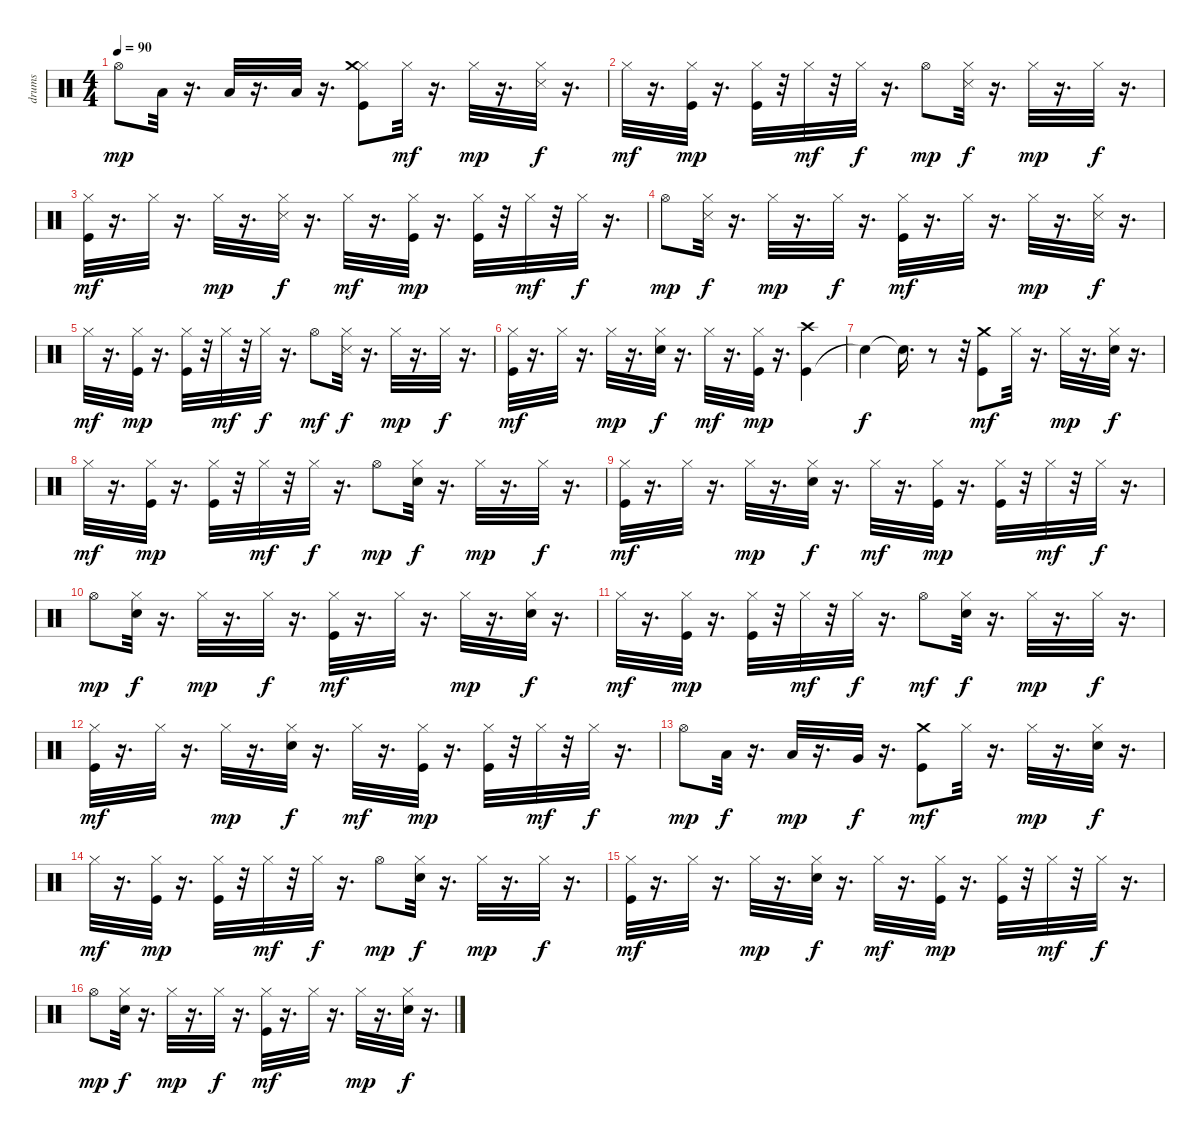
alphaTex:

\track ("drums" "drums") {instrument percussion}
\staff {score}
\articulation defaults
\ts (4 4)
\tempo 90
\clef neutral
\ks c "Hi-Hat (open)".8{dy mp} "Low Tom (hit)".32
r.16{d} "Low Tom (hit)".32 r.16{d} "Low Floor Tom (hit)".32 r.16{d} ("Kick (hit)" "Hi-Hat (closed)" "Crash medium (hit)").8 "Hi-Hat (closed)".32{dy mf} r.16{d} "Hi-Hat (closed)".32{dy mp} r.16{d} ("Snare (side stick) 3" "Hi-Hat (closed)").32{dy f} r.16{d} |
"Hi-Hat (closed)".32{dy mf} r.16{d} ("Kick (hit)" "Hi-Hat (closed)").32{dy mp} r.16{d} ("Kick (hit)" "Hi-Hat (closed)").32 r.32 "Hi-Hat (closed)".32{dy mf} r.32 "Hi-Hat (closed)".32{dy f} r.16{d} "Hi-Hat (open)".8{dy mp} ("Snare (side stick) 3" "Hi-Hat (closed)").32{dy f} r.16{d} "Hi-Hat (closed)".32{dy mp} r.16{d} "Hi-Hat (closed)".32{dy f} r.16{d} |
("Kick (hit)" "Hi-Hat (closed)").32{dy mf} r.16{d} "Hi-Hat (closed)".32 r.16{d} "Hi-Hat (closed)".32{dy mp} r.16{d} ("Snare (side stick) 3" "Hi-Hat (closed)").32{dy f} r.16{d} "Hi-Hat (closed)".32{dy mf} r.16{d} ("Kick (hit)" "Hi-Hat (closed)").32{dy mp} r.16{d} ("Kick (hit)" "Hi-Hat (closed)").32 r.32 "Hi-Hat (closed)".32{dy mf} r.32 "Hi-Hat (closed)".32{dy f} r.16{d} |
"Hi-Hat (open)".8{dy mp} ("Snare (side stick) 3" "Hi-Hat (closed)").32{dy f} r.16{d} "Hi-Hat (closed)".32{dy mp} r.16{d} "Hi-Hat (closed)".32{dy f} r.16{d} ("Kick (hit)" "Hi-Hat (closed)").32{dy mf} r.16{d} "Hi-Hat (closed)".32 r.16{d} "Hi-Hat (closed)".32{dy mp} r.16{d} ("Snare (side stick) 3" "Hi-Hat (closed)").32{dy f} r.16{d} |
"Hi-Hat (closed)".32{dy mf} r.16{d} ("Kick (hit)" "Hi-Hat (closed)").32{dy mp} r.16{d} ("Kick (hit)" "Hi-Hat (closed)").32 r.32 "Hi-Hat (closed)".32{dy mf} r.32 "Hi-Hat (closed)".32{dy f} r.16{d} "Hi-Hat (open)".8{dy mf} ("Snare (side stick) 3" "Hi-Hat (closed)").32{dy f} r.16{d} "Hi-Hat (closed)".32{dy mp} r.16{d} "Hi-Hat (closed)".32{dy f} r.16{d} |
("Kick (hit)" "Hi-Hat (closed)").32{dy mf} r.16{d} "Hi-Hat (closed)".32 r.16{d} "Hi-Hat (closed)".32{dy mp} r.16{d} ("Snare (hit) 2" "Hi-Hat (closed)").32{dy f} r.16{d} "Hi-Hat (closed)".32{dy mf} r.16{d} ("Kick (hit)" "Hi-Hat (closed)").32{dy mp} r.16{d} ("Kick (hit)" "Crash high (hit)").4 |
"Snare (hit)"{t}.4{dy f} "Snare (hit)"{t}.16{d} r.8 r.32 ("Kick (hit)" "Crash medium (hit)").8{dy mf} "Hi-Hat (closed)".32 r.16{d} "Hi-Hat (closed)".32{dy mp} r.16{d} ("Snare (hit) 2" "Hi-Hat (closed)").32{dy f} r.16{d} |
"Hi-Hat (closed)".32{dy mf} r.16{d} ("Kick (hit)" "Hi-Hat (closed)").32{dy mp} r.16{d} ("Kick (hit)" "Hi-Hat (closed)").32 r.32 "Hi-Hat (closed)".32{dy mf} r.32 "Hi-Hat (closed)".32{dy f} r.16{d} "Hi-Hat (open)".8{dy mp} ("Snare (hit) 2" "Hi-Hat (closed)").32{dy f} r.16{d} "Hi-Hat (closed)".32{dy mp} r.16{d} "Hi-Hat (closed)".32{dy f} r.16{d} |
("Kick (hit)" "Hi-Hat (closed)").32{dy mf} r.16{d} "Hi-Hat (closed)".32 r.16{d} "Hi-Hat (closed)".32{dy mp} r.16{d} ("Snare (hit) 2" "Hi-Hat (closed)").32{dy f} r.16{d} "Hi-Hat (closed)".32{dy mf} r.16{d} ("Kick (hit)" "Hi-Hat (closed)").32{dy mp} r.16{d} ("Kick (hit)" "Hi-Hat (closed)").32 r.32 "Hi-Hat (closed)".32{dy mf} r.32 "Hi-Hat (closed)".32{dy f} r.16{d} |
"Hi-Hat (open)".8{dy mp} ("Snare (hit) 2" "Hi-Hat (closed)").32{dy f} r.16{d} "Hi-Hat (closed)".32{dy mp} r.16{d} "Hi-Hat (closed)".32{dy f} r.16{d} ("Kick (hit)" "Hi-Hat (closed)").32{dy mf} r.16{d} "Hi-Hat (closed)".32 r.16{d} "Hi-Hat (closed)".32{dy mp} r.16{d} ("Snare (hit) 2" "Hi-Hat (closed)").32{dy f} r.16{d} |
"Hi-Hat (closed)".32{dy mf} r.16{d} ("Kick (hit)" "Hi-Hat (closed)").32{dy mp} r.16{d} ("Kick (hit)" "Hi-Hat (closed)").32 r.32 "Hi-Hat (closed)".32{dy mf} r.32 "Hi-Hat (closed)".32{dy f} r.16{d} "Hi-Hat (open)".8{dy mf} ("Snare (hit) 2" "Hi-Hat (closed)").32{dy f} r.16{d} "Hi-Hat (closed)".32{dy mp} r.16{d} "Hi-Hat (closed)".32{dy f} r.16{d} |
("Kick (hit)" "Hi-Hat (closed)").32{dy mf} r.16{d} "Hi-Hat (closed)".32 r.16{d} "Hi-Hat (closed)".32{dy mp} r.16{d} ("Snare (hit) 2" "Hi-Hat (closed)").32{dy f} r.16{d} "Hi-Hat (closed)".32{dy mf} r.16{d} ("Kick (hit)" "Hi-Hat (closed)").32{dy mp} r.16{d} ("Kick (hit)" "Hi-Hat (closed)").32 r.32 "Hi-Hat (closed)".32{dy mf} r.32 "Hi-Hat (closed)".32{dy f} r.16{d} |
"Hi-Hat (open)".8{dy mp} "Low Tom (hit)".32{dy f} r.16{d} "Low Tom (hit)".32{dy mp} r.16{d} "Very Low Tom (hit)".32{dy f} r.16{d} ("Kick (hit)" "Crash medium (hit)").8{dy mf} "Hi-Hat (closed)".32 r.16{d} "Hi-Hat (closed)".32{dy mp} r.16{d} ("Snare (hit) 2" "Hi-Hat (closed)").32{dy f} r.16{d} |
"Hi-Hat (closed)".32{dy mf} r.16{d} ("Kick (hit)" "Hi-Hat (closed)").32{dy mp} r.16{d} ("Kick (hit)" "Hi-Hat (closed)").32 r.32 "Hi-Hat (closed)".32{dy mf} r.32 "Hi-Hat (closed)".32{dy f} r.16{d} "Hi-Hat (open)".8{dy mp} ("Snare (hit) 2" "Hi-Hat (closed)").32{dy f} r.16{d} "Hi-Hat (closed)".32{dy mp} r.16{d} "Hi-Hat (closed)".32{dy f} r.16{d} |
("Kick (hit)" "Hi-Hat (closed)").32{dy mf} r.16{d} "Hi-Hat (closed)".32 r.16{d} "Hi-Hat (closed)".32{dy mp} r.16{d} ("Snare (hit) 2" "Hi-Hat (closed)").32{dy f} r.16{d} "Hi-Hat (closed)".32{dy mf} r.16{d} ("Kick (hit)" "Hi-Hat (closed)").32{dy mp} r.16{d} ("Kick (hit)" "Hi-Hat (closed)").32 r.32 "Hi-Hat (closed)".32{dy mf} r.32 "Hi-Hat (closed)".32{dy f} r.16{d} |
"Hi-Hat (open)".8{dy mp} ("Snare (hit) 2" "Hi-Hat (closed)").32{dy f} r.16{d} "Hi-Hat (closed)".32{dy mp} r.16{d} "Hi-Hat (closed)".32{dy f} r.16{d} ("Kick (hit)" "Hi-Hat (closed)").32{dy mf} r.16{d} "Hi-Hat (closed)".32 r.16{d} "Hi-Hat (closed)".32{dy mp} r.16{d} ("Snare (hit) 2" "Hi-Hat (closed)").32{dy f} r.16{d}
